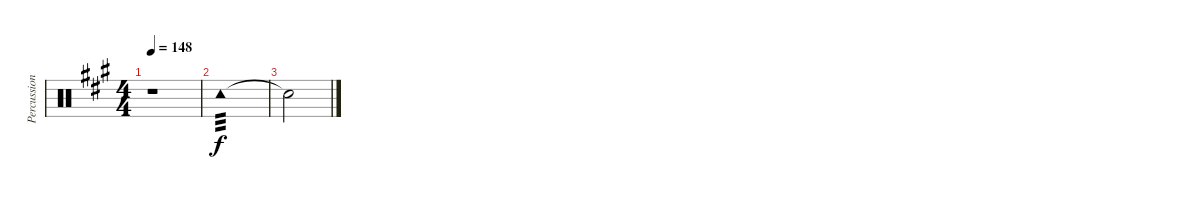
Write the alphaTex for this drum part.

\track ("Percussion" "Percussion") {instrument percussion}
\staff {score}
\articulation defaults
\ts (4 4)
\tempo 148
\clef neutral
\ks a
r.1{dy f} |
"Tambourine (hit)".1{tp 3} |
"Snare (hit)"{t}.2
